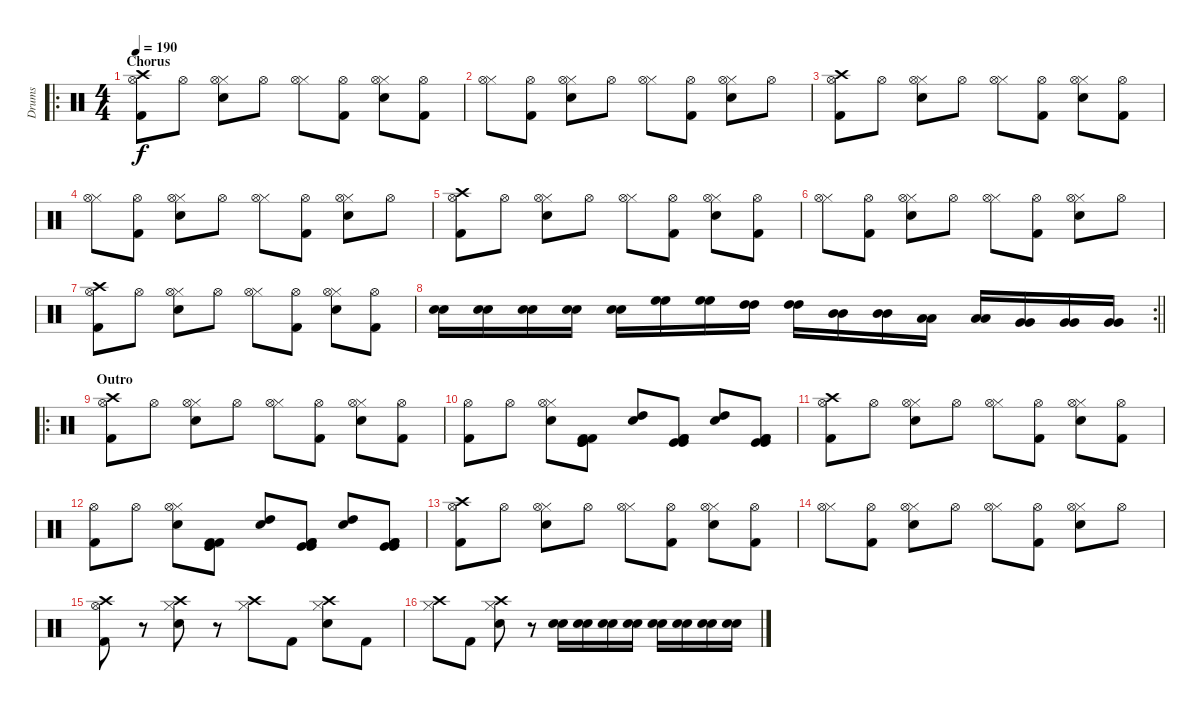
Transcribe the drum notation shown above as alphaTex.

\track ("Drums" "Drums") {instrument percussion}
\staff {score}
\articulation defaults
\ro
\ts (4 4)
\section ("" "Chorus")
\tempo 190
\clef neutral
\ks c
("Hi-Hat (open)" "Kick (hit) 2" "Crash high (hit)").8{dy f} "Hi-Hat (open)".8 ("Hi-Hat (closed)" "Snare (hit) 2" "Hi-Hat (open)").8 "Hi-Hat (open)".8 ("Hi-Hat (closed)" "Hi-Hat (open)").8 ("Kick (hit) 2" "Hi-Hat (open)").8 ("Hi-Hat (closed)" "Snare (hit) 2" "Hi-Hat (open)").8 ("Kick (hit) 2" "Hi-Hat (open)").8 |
("Hi-Hat (closed)" "Hi-Hat (open)").8 ("Kick (hit) 2" "Hi-Hat (open)").8 ("Hi-Hat (closed)" "Snare (hit) 2" "Hi-Hat (open)").8 "Hi-Hat (open)".8 ("Hi-Hat (closed)" "Hi-Hat (open)").8 ("Kick (hit) 2" "Hi-Hat (open)").8 ("Hi-Hat (closed)" "Snare (hit) 2" "Hi-Hat (open)").8 "Hi-Hat (open)".8 |
("Hi-Hat (open)" "Kick (hit) 2" "Crash high (hit)").8 "Hi-Hat (open)".8 ("Hi-Hat (closed)" "Snare (hit) 2" "Hi-Hat (open)").8 "Hi-Hat (open)".8 ("Hi-Hat (closed)" "Hi-Hat (open)").8 ("Kick (hit) 2" "Hi-Hat (open)").8 ("Hi-Hat (closed)" "Snare (hit) 2" "Hi-Hat (open)").8 ("Kick (hit) 2" "Hi-Hat (open)").8 |
("Hi-Hat (closed)" "Hi-Hat (open)").8 ("Kick (hit) 2" "Hi-Hat (open)").8 ("Hi-Hat (closed)" "Snare (hit) 2" "Hi-Hat (open)").8 "Hi-Hat (open)".8 ("Hi-Hat (closed)" "Hi-Hat (open)").8 ("Kick (hit) 2" "Hi-Hat (open)").8 ("Hi-Hat (closed)" "Snare (hit) 2" "Hi-Hat (open)").8 "Hi-Hat (open)".8 |
("Hi-Hat (open)" "Kick (hit) 2" "Crash high (hit)").8 "Hi-Hat (open)".8 ("Hi-Hat (closed)" "Snare (hit) 2" "Hi-Hat (open)").8 "Hi-Hat (open)".8 ("Hi-Hat (closed)" "Hi-Hat (open)").8 ("Kick (hit) 2" "Hi-Hat (open)").8 ("Hi-Hat (closed)" "Snare (hit) 2" "Hi-Hat (open)").8 ("Kick (hit) 2" "Hi-Hat (open)").8 |
("Hi-Hat (closed)" "Hi-Hat (open)").8 ("Kick (hit) 2" "Hi-Hat (open)").8 ("Hi-Hat (closed)" "Snare (hit) 2" "Hi-Hat (open)").8 "Hi-Hat (open)".8 ("Hi-Hat (closed)" "Hi-Hat (open)").8 ("Kick (hit) 2" "Hi-Hat (open)").8 ("Hi-Hat (closed)" "Snare (hit) 2" "Hi-Hat (open)").8 "Hi-Hat (open)".8 |
("Hi-Hat (open)" "Kick (hit) 2" "Crash high (hit)").8 "Hi-Hat (open)".8 ("Hi-Hat (closed)" "Snare (hit) 2" "Hi-Hat (open)").8 "Hi-Hat (open)".8 ("Hi-Hat (closed)" "Hi-Hat (open)").8 ("Kick (hit) 2" "Hi-Hat (open)").8 ("Hi-Hat (closed)" "Snare (hit) 2" "Hi-Hat (open)").8 ("Kick (hit) 2" "Hi-Hat (open)").8 |
\rc 2
\barLineRight lightlight
("Snare (hit) 2" "Electric Snare (hit)").16 ("Snare (hit) 2" "Electric Snare (hit)").16 ("Snare (hit) 2" "Electric Snare (hit)").16 ("Snare (hit) 2" "Electric Snare (hit)").16 ("Snare (hit) 2" "Electric Snare (hit)").16 ("High Floor Tom (hit)" "High Floor Tom (hit)").16 ("High Floor Tom (hit)" "High Floor Tom (hit)").16 ("High Tom (hit)" "High Tom (hit)").16 ("High Tom (hit)" "High Tom (hit)").16 ("Mid Tom (hit)" "Mid Tom (hit)").16 ("Mid Tom (hit)" "Mid Tom (hit)").16 ("Low Tom (hit)" "Low Tom (hit)").16 ("Low Tom (hit)" "Low Tom (hit)").16 ("Very Low Tom (hit)" "Very Low Tom (hit)").16 ("Very Low Tom (hit)" "Very Low Tom (hit)").16 ("Very Low Tom (hit)" "Very Low Tom (hit)").16 |
\ro
\section ("" "Outro")
("Hi-Hat (open)" "Kick (hit) 2" "Crash high (hit)").8 "Hi-Hat (open)".8 ("Hi-Hat (closed)" "Snare (hit) 2" "Hi-Hat (open)").8 "Hi-Hat (open)".8 ("Hi-Hat (closed)" "Hi-Hat (open)").8 ("Kick (hit) 2" "Hi-Hat (open)").8 ("Hi-Hat (closed)" "Snare (hit) 2" "Hi-Hat (open)").8 ("Kick (hit) 2" "Hi-Hat (open)").8 |
("Hi-Hat (open)" "Kick (hit) 2").8 "Hi-Hat (open)".8 ("Hi-Hat (closed)" "Snare (hit) 2" "Hi-Hat (open)").8 ("Kick (hit)" "Kick (hit) 2" "Kick (hit)" "Kick (hit) 2").8 ("High Tom (hit)" "Electric Snare (hit)").8 ("Kick (hit)" "Kick (hit) 2" "Kick (hit)" "Kick (hit) 2").8 ("High Tom (hit)" "Electric Snare (hit)").8 ("Kick (hit)" "Kick (hit) 2" "Kick (hit)" "Kick (hit) 2").8 |
("Hi-Hat (open)" "Kick (hit) 2" "Crash high (hit)").8 "Hi-Hat (open)".8 ("Hi-Hat (closed)" "Snare (hit) 2" "Hi-Hat (open)").8 "Hi-Hat (open)".8 ("Hi-Hat (closed)" "Hi-Hat (open)").8 ("Kick (hit) 2" "Hi-Hat (open)").8 ("Hi-Hat (closed)" "Snare (hit) 2" "Hi-Hat (open)").8 ("Kick (hit) 2" "Hi-Hat (open)").8 |
("Hi-Hat (open)" "Kick (hit) 2").8 "Hi-Hat (open)".8 ("Hi-Hat (closed)" "Snare (hit) 2" "Hi-Hat (open)").8 ("Kick (hit)" "Kick (hit) 2" "Kick (hit)" "Kick (hit) 2").8 ("High Tom (hit)" "Electric Snare (hit)").8 ("Kick (hit)" "Kick (hit) 2" "Kick (hit)" "Kick (hit) 2").8 ("High Tom (hit)" "Electric Snare (hit)").8 ("Kick (hit)" "Kick (hit) 2" "Kick (hit)" "Kick (hit) 2").8 |
("Hi-Hat (open)" "Kick (hit) 2" "Crash high (hit)").8 "Hi-Hat (open)".8 ("Hi-Hat (closed)" "Snare (hit) 2" "Hi-Hat (open)").8 "Hi-Hat (open)".8 ("Hi-Hat (closed)" "Hi-Hat (open)").8 ("Kick (hit) 2" "Hi-Hat (open)").8 ("Hi-Hat (closed)" "Snare (hit) 2" "Hi-Hat (open)").8 ("Kick (hit) 2" "Hi-Hat (open)").8 |
("Hi-Hat (closed)" "Hi-Hat (open)").8 ("Kick (hit) 2" "Hi-Hat (open)").8 ("Hi-Hat (closed)" "Snare (hit) 2" "Hi-Hat (open)").8 "Hi-Hat (open)".8 ("Hi-Hat (closed)" "Hi-Hat (open)").8 ("Kick (hit) 2" "Hi-Hat (open)").8 ("Hi-Hat (closed)" "Snare (hit) 2" "Hi-Hat (open)").8 "Hi-Hat (open)".8 |
("Hi-Hat (open)" "Kick (hit) 2" "Crash high (hit)").8 r.8 ("Hi-Hat (closed)" "Snare (hit) 2" "Crash high (hit)").8 r.8 ("Hi-Hat (closed)" "Crash high (hit)").8 "Kick (hit) 2".8 ("Hi-Hat (closed)" "Snare (hit) 2" "Crash high (hit)").8 "Kick (hit) 2".8 |
("Hi-Hat (closed)" "Crash high (hit)").8 "Kick (hit) 2".8 ("Hi-Hat (closed)" "Snare (hit) 2" "Crash high (hit)").8 r.8 ("Snare (hit) 2" "Electric Snare (hit)").16 ("Snare (hit) 2" "Electric Snare (hit)").16 ("Snare (hit) 2" "Electric Snare (hit)").16 ("Snare (hit) 2" "Electric Snare (hit)").16 ("Snare (hit) 2" "Electric Snare (hit)").16 ("Snare (hit) 2" "Electric Snare (hit)").16 ("Snare (hit) 2" "Electric Snare (hit)").16 ("Snare (hit) 2" "Electric Snare (hit)").16
